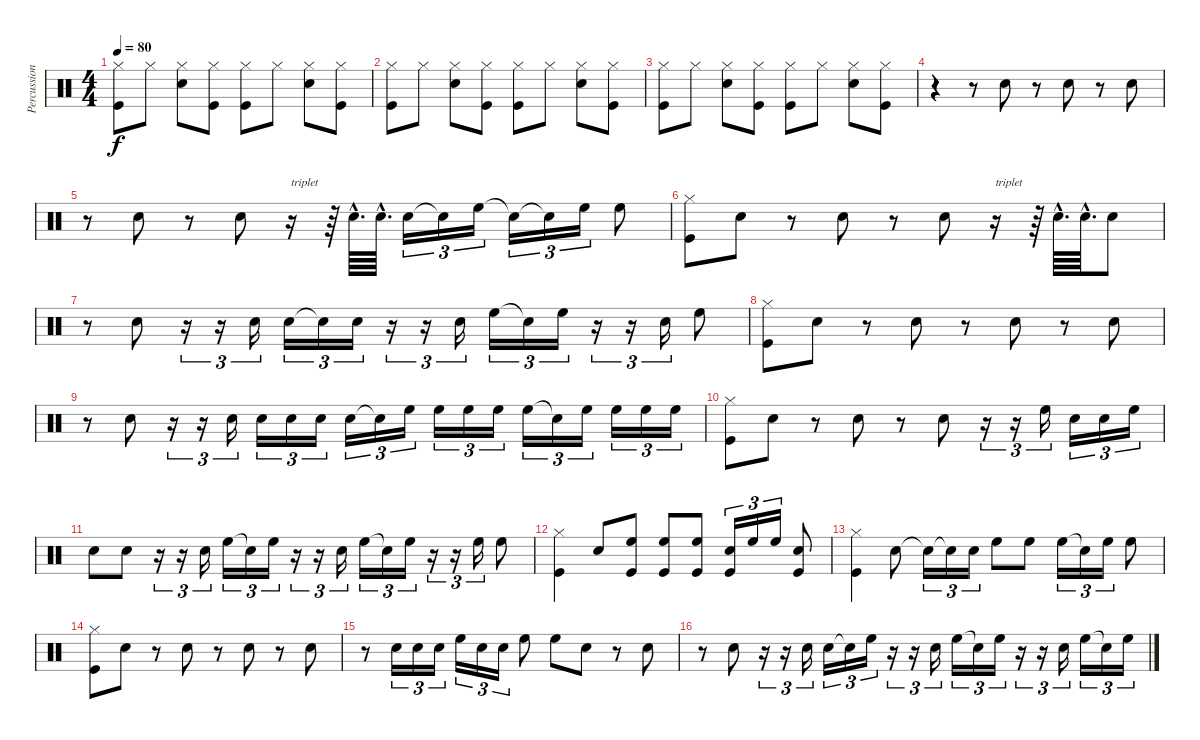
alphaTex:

\track ("Percussion" "Percussion") {instrument percussion}
\staff {score}
\articulation defaults
\ts (4 4)
\tempo 80
\clef neutral
\ks c
("Hi-Hat (closed)" "Kick (hit)").8{dy f} "Hi-Hat (closed)".8 ("Hi-Hat (closed)" "Snare (hit) 2").8 ("Hi-Hat (closed)" "Kick (hit)").8 ("Hi-Hat (closed)" "Kick (hit)").8 "Hi-Hat (closed)".8 ("Hi-Hat (closed)" "Snare (hit) 2").8 ("Hi-Hat (closed)" "Kick (hit)").8 |
("Hi-Hat (closed)" "Kick (hit)").8 "Hi-Hat (closed)".8 ("Hi-Hat (closed)" "Snare (hit) 2").8 ("Hi-Hat (closed)" "Kick (hit)").8 ("Hi-Hat (closed)" "Kick (hit)").8 "Hi-Hat (closed)".8 ("Hi-Hat (closed)" "Snare (hit) 2").8 ("Hi-Hat (closed)" "Kick (hit)").8 |
("Hi-Hat (closed)" "Kick (hit)").8 "Hi-Hat (closed)".8 ("Hi-Hat (closed)" "Snare (hit) 2").8 ("Hi-Hat (closed)" "Kick (hit)").8 ("Hi-Hat (closed)" "Kick (hit)").8 "Hi-Hat (closed)".8 ("Hi-Hat (closed)" "Snare (hit) 2").8 ("Hi-Hat (closed)" "Kick (hit)").8 |
r.4 r.8 "Snare (hit) 2".8 r.8 "Snare (hit) 2".8 r.8 "Snare (hit) 2".8 |
r.8 "Snare (hit) 2".8 r.8 "Snare (hit) 2".8 r.16{txt "triplet"} r.64 "Snare (hit) 2"{hac}.64{d} "Snare (hit) 2"{hac}.64{d} "Snare (hit) 2".16{tu (3 2)} "Snare (hit)"{t}.16{tu (3 2)} "High Floor Tom (hit)".16{tu (3 2)} "Snare (hit)"{t}.16{tu (3 2)} "Snare (hit)"{t}.16{tu (3 2)} "High Floor Tom (hit)".16{tu (3 2)} "High Floor Tom (hit)".8 |
("Hi-Hat (closed)" "Kick (hit)").8 "Snare (hit) 2".8 r.8 "Snare (hit) 2".8 r.8 "Snare (hit) 2".8 r.16{txt "triplet"} r.64 "Snare (hit) 2"{hac}.64{d} "Snare (hit) 2"{hac}.64{d} "Snare (hit) 2".8 |
r.8 "Snare (hit) 2".8 r.16{tu (3 2)} r.16{tu (3 2)} "Snare (hit) 2".16{tu (3 2)} "Snare (hit) 2".16{tu (3 2)} "Snare (hit)"{t}.16{tu (3 2)} "Snare (hit) 2".16{tu (3 2)} r.16{tu (3 2)} r.16{tu (3 2)} "Snare (hit) 2".16{tu (3 2)} "High Floor Tom (hit)".16{tu (3 2)} "Snare (hit)"{t}.16{tu (3 2)} "High Floor Tom (hit)".16{tu (3 2)} r.16{tu (3 2)} r.16{tu (3 2)} "Snare (hit) 2".16{tu (3 2)} "High Floor Tom (hit)".8 |
("Hi-Hat (closed)" "Kick (hit)").8 "Snare (hit) 2".8 r.8 "Snare (hit) 2".8 r.8 "Snare (hit) 2".8 r.8 "Snare (hit) 2".8 |
r.8 "Snare (hit) 2".8 r.16{tu (3 2)} r.16{tu (3 2)} "Snare (hit) 2".16{tu (3 2)} "Snare (hit) 2".16{tu (3 2)} "Snare (hit) 2".16{tu (3 2)} "Snare (hit) 2".16{tu (3 2)} "Snare (hit) 2".16{tu (3 2)} "Snare (hit)"{t}.16{tu (3 2)} "High Floor Tom (hit)".16{tu (3 2)} "High Floor Tom (hit)".16{tu (3 2)} "High Floor Tom (hit)".16{tu (3 2)} "High Floor Tom (hit)".16{tu (3 2)} "High Floor Tom (hit)".16{tu (3 2)} "Snare (hit)"{t}.16{tu (3 2)} "High Floor Tom (hit)".16{tu (3 2)} "High Floor Tom (hit)".16{tu (3 2)} "High Floor Tom (hit)".16{tu (3 2)} "High Floor Tom (hit)".16{tu (3 2)} |
("Hi-Hat (closed)" "Kick (hit)").8 "Snare (hit) 2".8 r.8 "Snare (hit) 2".8 r.8 "Snare (hit) 2".8 r.16{tu (3 2)} r.16{tu (3 2)} "High Floor Tom (hit)".16{tu (3 2)} "Snare (hit) 2".16{tu (3 2)} "Snare (hit) 2".16{tu (3 2)} "High Floor Tom (hit)".16{tu (3 2)} |
"Snare (hit) 2".8 "Snare (hit) 2".8 r.16{tu (3 2)} r.16{tu (3 2)} "Snare (hit) 2".16{tu (3 2)} "High Floor Tom (hit)".16{tu (3 2)} "Snare (hit)"{t}.16{tu (3 2)} "High Floor Tom (hit)".16{tu (3 2)} r.16{tu (3 2)} r.16{tu (3 2)} "Snare (hit) 2".16{tu (3 2)} "High Floor Tom (hit)".16{tu (3 2)} "Snare (hit)"{t}.16{tu (3 2)} "High Floor Tom (hit)".16{tu (3 2)} r.16{tu (3 2)} r.16{tu (3 2)} "High Floor Tom (hit)".16{tu (3 2)} "High Floor Tom (hit)".8 |
("Hi-Hat (closed)" "Kick (hit)").4 "Snare (hit) 2".8 ("High Floor Tom (hit)" "Kick (hit)").8 ("High Floor Tom (hit)" "Kick (hit)").8 ("High Floor Tom (hit)" "Kick (hit)").8 ("Snare (hit) 2" "Kick (hit)").16{tu (3 2)} "High Floor Tom (hit)".16{tu (3 2)} "High Floor Tom (hit)".16{tu (3 2)} ("Snare (hit) 2" "Kick (hit)").8 |
("Hi-Hat (closed)" "Kick (hit)").4 "Snare (hit) 2".8 "Snare (hit)"{t}.16{tu (3 2)} "Snare (hit)"{t}.16{tu (3 2)} "Snare (hit) 2".16{tu (3 2)} "High Floor Tom (hit)".8 "High Floor Tom (hit)".8 "High Floor Tom (hit)".16{tu (3 2)} "Snare (hit)"{t}.16{tu (3 2)} "High Floor Tom (hit)".16{tu (3 2)} "High Floor Tom (hit)".8 |
("Hi-Hat (closed)" "Kick (hit)").8 "Snare (hit) 2".8 r.8 "Snare (hit) 2".8 r.8 "Snare (hit) 2".8 r.8 "Snare (hit) 2".8 |
r.8 "Snare (hit) 2".16{tu (3 2)} "Snare (hit) 2".16{tu (3 2)} "Snare (hit) 2".16{tu (3 2)} "High Floor Tom (hit)".16{tu (3 2)} "Snare (hit) 2".16{tu (3 2)} "Snare (hit) 2".16{tu (3 2)} "High Floor Tom (hit)".8 "High Floor Tom (hit)".8 "Snare (hit) 2".8 r.8 "Snare (hit) 2".8 |
r.8 "Snare (hit) 2".8 r.16{tu (3 2)} r.16{tu (3 2)} "Snare (hit) 2".16{tu (3 2)} "Snare (hit) 2".16{tu (3 2)} "Snare (hit)"{t}.16{tu (3 2)} "High Floor Tom (hit)".16{tu (3 2)} r.16{tu (3 2)} r.16{tu (3 2)} "Snare (hit) 2".16{tu (3 2)} "High Floor Tom (hit)".16{tu (3 2)} "Snare (hit)"{t}.16{tu (3 2)} "High Floor Tom (hit)".16{tu (3 2)} r.16{tu (3 2)} r.16{tu (3 2)} "Snare (hit) 2".16{tu (3 2)} "High Floor Tom (hit)".16{tu (3 2)} "Snare (hit)"{t}.16{tu (3 2)} "High Floor Tom (hit)".16{tu (3 2)}
